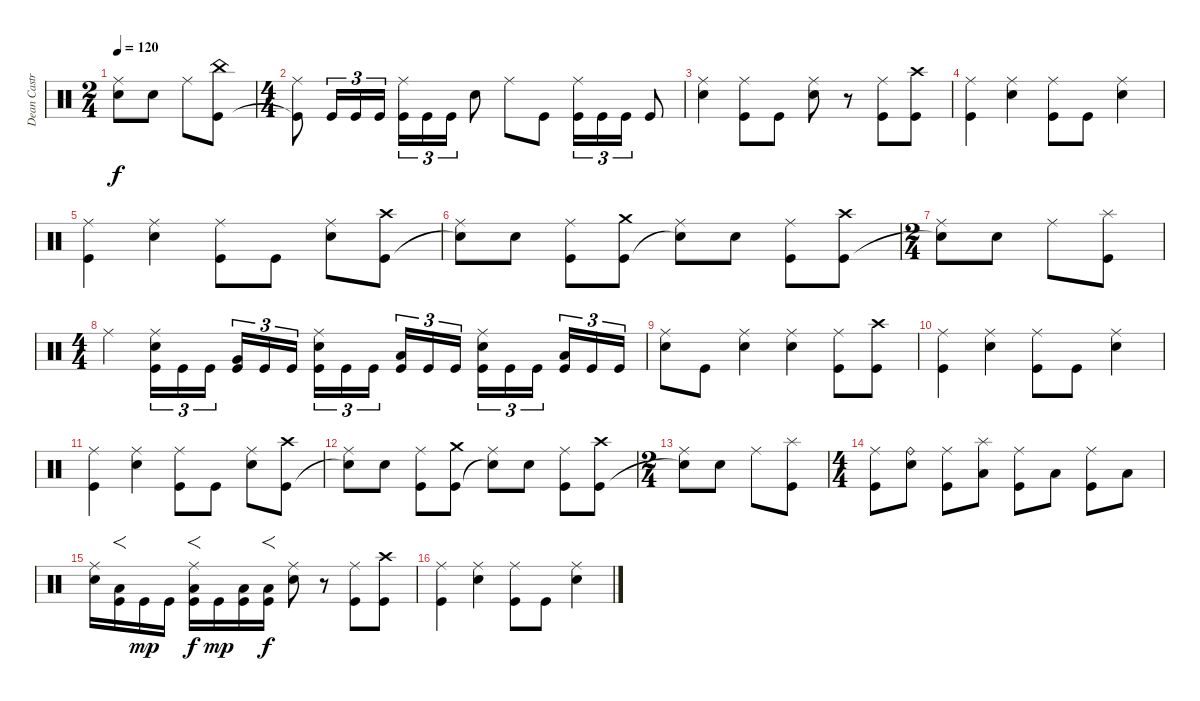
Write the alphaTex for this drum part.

\track ("Dean Castronova" "Dean Castr") {instrument percussion}
\staff {score}
\articulation defaults
\ts (2 4)
\tempo 120
\clef neutral
\ks c
("Ride (middle)" "Snare (hit)"{t}).8{dy f} "Electric Snare (hit)".8 "Ride (middle)".8 ("China (hit)" "Kick (hit)").8 |
\ts (4 4)
("Ride (middle)" "Kick (hit)"{t}).8 "Kick (hit)".16{tu (3 2)} "Kick (hit)".16{tu (3 2)} "Kick (hit)".16{tu (3 2)} ("Ride (middle)" "Kick (hit)").16{tu (3 2)} "Kick (hit)".16{tu (3 2)} "Kick (hit)".16{tu (3 2)} "Electric Snare (hit)".8 "Ride (middle)".8 "Kick (hit)".8 ("Ride (middle)" "Kick (hit)").16{tu (3 2)} "Kick (hit)".16{tu (3 2)} "Kick (hit)".16{tu (3 2)} "Kick (hit)".8 |
("Ride (middle)" "Electric Snare (hit)").4 ("Ride (middle)" "Kick (hit)").8 "Kick (hit)".8 ("Ride (middle)" "Electric Snare (hit)").8 r.8 ("Ride (middle)" "Kick (hit)").8 ("Crash high (hit)" "Kick (hit)").8 |
("Ride (middle)" "Kick (hit)").4 ("Ride (middle)" "Electric Snare (hit)").4 ("Ride (middle)" "Kick (hit)").8 "Kick (hit)".8 ("Ride (middle)" "Electric Snare (hit)").4 |
("Ride (middle)" "Kick (hit)").4 ("Ride (middle)" "Electric Snare (hit)").4 ("Ride (middle)" "Kick (hit)").8 "Kick (hit)".8 ("Ride (middle)" "Electric Snare (hit)").8 ("Crash high (hit)" "Kick (hit)").8 |
("Ride (middle)" "Snare (hit)"{t}).8 "Electric Snare (hit)".8 ("Ride (middle)" "Kick (hit)").8 ("Crash medium (hit)" "Kick (hit)").8 ("Ride (middle)" "Snare (hit)"{t}).8 "Electric Snare (hit)".8 ("Ride (middle)" "Kick (hit)").8 ("Crash high (hit)" "Kick (hit)").8 |
\ts (2 4)
("Ride (middle)" "Snare (hit)"{t}).8 "Electric Snare (hit)".8 "Ride (middle)".8 ("Splash (hit)" "Kick (hit)").8 |
\ts (4 4)
"Ride (middle)".4 ("Ride (middle)" "Electric Snare (hit)" "Kick (hit)").16{tu (3 2)} "Kick (hit)".16{tu (3 2)} "Kick (hit)".16{tu (3 2)} ("Very Low Tom (hit)" "Kick (hit)").16{tu (3 2)} "Kick (hit)".16{tu (3 2)} "Kick (hit)".16{tu (3 2)} ("Ride (middle)" "Electric Snare (hit)" "Kick (hit)").16{tu (3 2)} "Kick (hit)".16{tu (3 2)} "Kick (hit)".16{tu (3 2)} ("Low Tom (hit)" "Kick (hit)").16{tu (3 2)} "Kick (hit)".16{tu (3 2)} "Kick (hit)".16{tu (3 2)} ("Ride (middle)" "Electric Snare (hit)" "Kick (hit)").16{tu (3 2)} "Kick (hit)".16{tu (3 2)} "Kick (hit)".16{tu (3 2)} ("Low Floor Tom (hit)" "Kick (hit)").16{tu (3 2)} "Kick (hit)".16{tu (3 2)} "Kick (hit)".16{tu (3 2)} |
("Ride (middle)" "Electric Snare (hit)").8 "Kick (hit)".8 ("Ride (middle)" "Electric Snare (hit)").4 ("Ride (middle)" "Electric Snare (hit)").4 ("Ride (middle)" "Kick (hit)").8 ("Crash high (hit)" "Kick (hit)").8 |
("Ride (middle)" "Kick (hit)").4 ("Ride (middle)" "Electric Snare (hit)").4 ("Ride (middle)" "Kick (hit)").8 "Kick (hit)".8 ("Ride (middle)" "Electric Snare (hit)").4 |
("Ride (middle)" "Kick (hit)").4 ("Ride (middle)" "Electric Snare (hit)").4 ("Ride (middle)" "Kick (hit)").8 "Kick (hit)".8 ("Ride (middle)" "Electric Snare (hit)").8 ("Crash high (hit)" "Kick (hit)").8 |
("Ride (middle)" "Snare (hit)"{t}).8 "Electric Snare (hit)".8 ("Ride (middle)" "Kick (hit)").8 ("Crash medium (hit)" "Kick (hit)").8 ("Ride (middle)" "Snare (hit)"{t}).8 "Electric Snare (hit)".8 ("Ride (middle)" "Kick (hit)").8 ("Crash high (hit)" "Kick (hit)").8 |
\ts (2 4)
("Ride (middle)" "Snare (hit)"{t}).8 "Electric Snare (hit)".8 "Ride (middle)".8 ("Splash (hit)" "Kick (hit)").8 |
\ts (4 4)
("Ride (middle)" "Kick (hit)").8 ("Ride (bell)" "Electric Snare (hit)").8 ("Ride (middle)" "Kick (hit)").8 ("Splash (hit)" "Low Tom (hit)").8 ("Ride (middle)" "Kick (hit)").8 "Low Floor Tom (hit)".8 ("Ride (middle)" "Kick (hit)").8 "Low Floor Tom (hit)".8 |
("Ride (middle)" "Electric Snare (hit)").16 ("Low Floor Tom (hit)" "Kick (hit)").16{f} "Kick (hit)".16{dy mp} "Kick (hit)".16 ("Ride (middle)" "Low Floor Tom (hit)" "Kick (hit)").16{f dy f} "Kick (hit)".16{dy mp} ("Low Floor Tom (hit)" "Kick (hit)").16 ("Low Floor Tom (hit)" "Kick (hit)").16{f dy f} ("Ride (middle)" "Electric Snare (hit)").8 r.8 ("Ride (middle)" "Kick (hit)").8 ("Crash high (hit)" "Kick (hit)").8 |
("Ride (middle)" "Kick (hit)").4 ("Ride (middle)" "Electric Snare (hit)").4 ("Ride (middle)" "Kick (hit)").8 "Kick (hit)".8 ("Ride (middle)" "Electric Snare (hit)").4
